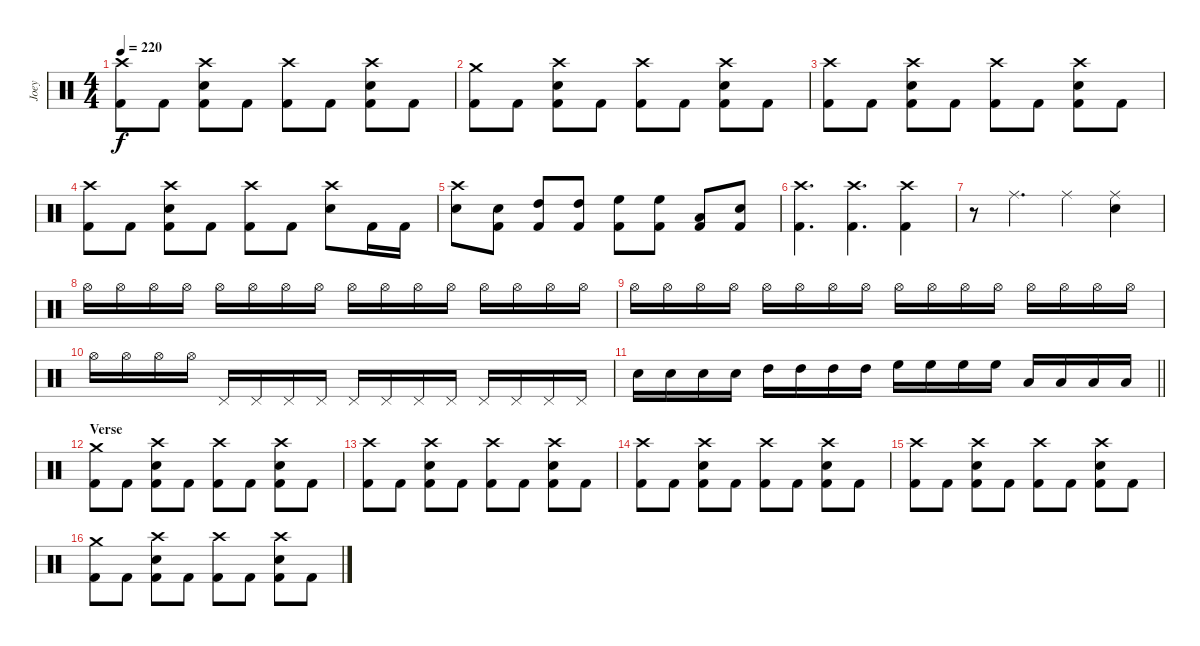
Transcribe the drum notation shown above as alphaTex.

\track ("Joey" "Joey") {instrument percussion}
\staff {score}
\articulation defaults
\ts (4 4)
\tempo 220
\clef neutral
\ks c
("Crash high (hit)" "Kick (hit) 2").8{dy f} "Kick (hit) 2".8 ("Crash high (hit)" "Electric Snare (hit)" "Kick (hit) 2").8 "Kick (hit) 2".8 ("Crash high (hit)" "Kick (hit) 2").8 "Kick (hit) 2".8 ("Crash high (hit)" "Electric Snare (hit)" "Kick (hit) 2").8 "Kick (hit) 2".8 |
("Crash medium (hit)" "Kick (hit) 2").8 "Kick (hit) 2".8 ("Crash high (hit)" "Electric Snare (hit)" "Kick (hit) 2").8 "Kick (hit) 2".8 ("Crash high (hit)" "Kick (hit) 2").8 "Kick (hit) 2".8 ("Crash high (hit)" "Electric Snare (hit)" "Kick (hit) 2").8 "Kick (hit) 2".8 |
("Crash high (hit)" "Kick (hit) 2").8 "Kick (hit) 2".8 ("Crash high (hit)" "Electric Snare (hit)" "Kick (hit) 2").8 "Kick (hit) 2".8 ("Crash high (hit)" "Kick (hit) 2").8 "Kick (hit) 2".8 ("Crash high (hit)" "Electric Snare (hit)" "Kick (hit) 2").8 "Kick (hit) 2".8 |
("Crash high (hit)" "Kick (hit) 2").8 "Kick (hit) 2".8 ("Crash high (hit)" "Electric Snare (hit)" "Kick (hit) 2").8 "Kick (hit) 2".8 ("Crash high (hit)" "Kick (hit) 2").8 "Kick (hit) 2".8 ("Crash high (hit)" "Electric Snare (hit)").8 "Kick (hit) 2".16 "Kick (hit) 2".16 |
("Crash high (hit)" "Electric Snare (hit)").8 ("Electric Snare (hit)" "Kick (hit) 2").8 ("High Tom (hit)" "Kick (hit) 2").8 ("High Tom (hit)" "Kick (hit) 2").8 ("High Floor Tom (hit)" "Kick (hit) 2").8 ("High Floor Tom (hit)" "Kick (hit) 2").8 ("Low Floor Tom (hit)" "Kick (hit) 2").8 ("Electric Snare (hit)" "Kick (hit) 2").8 |
("Crash high (hit)" "Kick (hit) 2").4{d} ("Crash high (hit)" "Kick (hit) 2").4{d} ("Crash high (hit)" "Kick (hit) 2").4 |
r.8 "Ride (middle)".4{d} "Ride (middle)".4 ("Ride (middle)" "Electric Snare (hit)").4 |
"Hi-Hat (open)".16 "Hi-Hat (open)".16 "Hi-Hat (open)".16 "Hi-Hat (open)".16 "Hi-Hat (open)".16 "Hi-Hat (open)".16 "Hi-Hat (open)".16 "Hi-Hat (open)".16 "Hi-Hat (open)".16 "Hi-Hat (open)".16 "Hi-Hat (open)".16 "Hi-Hat (open)".16 "Hi-Hat (open)".16 "Hi-Hat (open)".16 "Hi-Hat (open)".16 "Hi-Hat (open)".16 |
"Hi-Hat (open)".16 "Hi-Hat (open)".16 "Hi-Hat (open)".16 "Hi-Hat (open)".16 "Hi-Hat (open)".16 "Hi-Hat (open)".16 "Hi-Hat (open)".16 "Hi-Hat (open)".16 "Hi-Hat (open)".16 "Hi-Hat (open)".16 "Hi-Hat (open)".16 "Hi-Hat (open)".16 "Hi-Hat (open)".16 "Hi-Hat (open)".16 "Hi-Hat (open)".16 "Hi-Hat (open)".16 |
"Hi-Hat (open)".16 "Hi-Hat (open)".16 "Hi-Hat (open)".16 "Hi-Hat (open)".16 "Pedal Hi-Hat (hit)".16 "Pedal Hi-Hat (hit)".16 "Pedal Hi-Hat (hit)".16 "Pedal Hi-Hat (hit)".16 "Pedal Hi-Hat (hit)".16 "Pedal Hi-Hat (hit)".16 "Pedal Hi-Hat (hit)".16 "Pedal Hi-Hat (hit)".16 "Pedal Hi-Hat (hit)".16 "Pedal Hi-Hat (hit)".16 "Pedal Hi-Hat (hit)".16 "Pedal Hi-Hat (hit)".16 |
\barLineRight lightlight "Electric Snare (hit)".16 "Electric Snare (hit)".16 "Electric Snare (hit)".16 "Electric Snare (hit)".16 "High Tom (hit)".16 "High Tom (hit)".16 "High Tom (hit)".16 "High Tom (hit)".16 "High Floor Tom (hit)".16 "High Floor Tom (hit)".16 "High Floor Tom (hit)".16 "High Floor Tom (hit)".16 "Low Floor Tom (hit)".16 "Low Floor Tom (hit)".16 "Low Floor Tom (hit)".16 "Low Floor Tom (hit)".16
|
\section ("" "Verse")
("Crash medium (hit)" "Kick (hit) 2").8 "Kick (hit) 2".8 ("Crash high (hit)" "Electric Snare (hit)" "Kick (hit) 2").8 "Kick (hit) 2".8 ("Crash high (hit)" "Kick (hit) 2").8 "Kick (hit) 2".8 ("Crash high (hit)" "Electric Snare (hit)" "Kick (hit) 2").8 "Kick (hit) 2".8 |
("Crash high (hit)" "Kick (hit) 2").8 "Kick (hit) 2".8 ("Crash high (hit)" "Electric Snare (hit)" "Kick (hit) 2").8 "Kick (hit) 2".8 ("Crash high (hit)" "Kick (hit) 2").8 "Kick (hit) 2".8 ("Crash high (hit)" "Electric Snare (hit)" "Kick (hit) 2").8 "Kick (hit) 2".8 |
("Crash high (hit)" "Kick (hit) 2").8 "Kick (hit) 2".8 ("Crash high (hit)" "Electric Snare (hit)" "Kick (hit) 2").8 "Kick (hit) 2".8 ("Crash high (hit)" "Kick (hit) 2").8 "Kick (hit) 2".8 ("Crash high (hit)" "Electric Snare (hit)" "Kick (hit) 2").8 "Kick (hit) 2".8 |
("Crash high (hit)" "Kick (hit) 2").8 "Kick (hit) 2".8 ("Crash high (hit)" "Electric Snare (hit)" "Kick (hit) 2").8 "Kick (hit) 2".8 ("Crash high (hit)" "Kick (hit) 2").8 "Kick (hit) 2".8 ("Crash high (hit)" "Electric Snare (hit)" "Kick (hit) 2").8 "Kick (hit) 2".8 |
("Crash medium (hit)" "Kick (hit) 2").8 "Kick (hit) 2".8 ("Crash high (hit)" "Electric Snare (hit)" "Kick (hit) 2").8 "Kick (hit) 2".8 ("Crash high (hit)" "Kick (hit) 2").8 "Kick (hit) 2".8 ("Crash high (hit)" "Electric Snare (hit)" "Kick (hit) 2").8 "Kick (hit) 2".8
